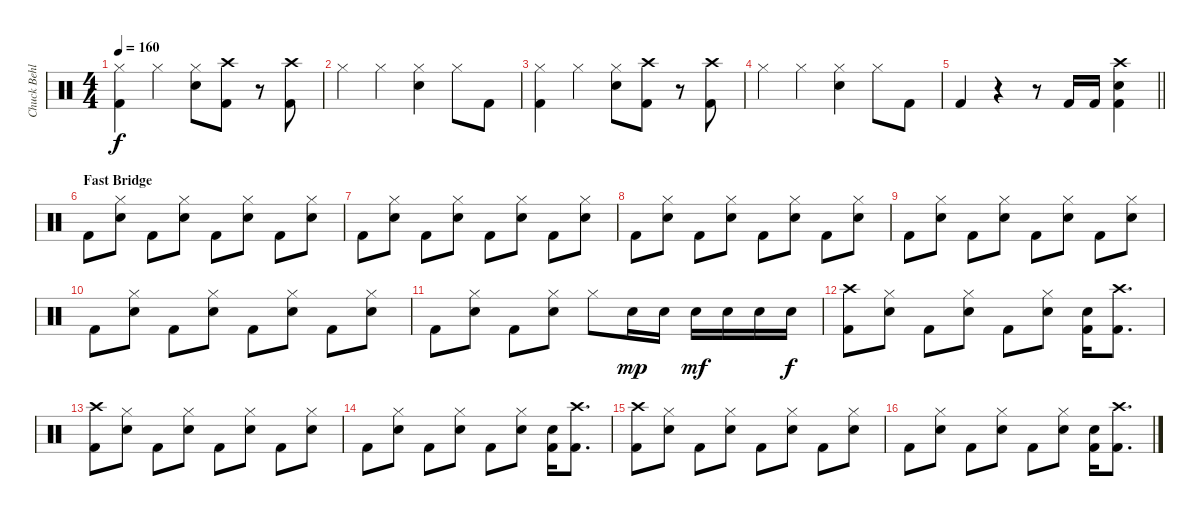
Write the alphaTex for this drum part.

\track ("Chuck Behler" "Chuck Behl") {instrument percussion}
\staff {score}
\articulation defaults
\ts (4 4)
\tempo 160
\clef neutral
\ks c
("Hi-Hat (closed)" "Kick (hit) 2").4{dy f} "Hi-Hat (closed)".4 ("Hi-Hat (closed)" "Snare (hit) 2").8 ("Crash high (hit)" "Kick (hit) 2").8 r.8 ("Crash high (hit)" "Kick (hit) 2").8 |
"Hi-Hat (closed)".4 "Hi-Hat (closed)".4 ("Hi-Hat (closed)" "Snare (hit) 2").4 "Hi-Hat (closed)".8 "Kick (hit) 2".8 |
("Hi-Hat (closed)" "Kick (hit) 2").4 "Hi-Hat (closed)".4 ("Hi-Hat (closed)" "Snare (hit) 2").8 ("Crash high (hit)" "Kick (hit) 2").8 r.8 ("Crash high (hit)" "Kick (hit) 2").8 |
"Hi-Hat (closed)".4 "Hi-Hat (closed)".4 ("Hi-Hat (closed)" "Snare (hit) 2").4 "Hi-Hat (closed)".8 "Kick (hit) 2".8 |
\barLineRight lightlight "Kick (hit) 2".4
r.4 r.8 "Kick (hit) 2".16 "Kick (hit) 2".16 ("Crash high (hit)" "Snare (hit) 2" "Kick (hit) 2").4 |
\section ("" "Fast Bridge")
"Kick (hit) 2".8 ("Hi-Hat (closed)" "Snare (hit) 2").8 "Kick (hit) 2".8 ("Hi-Hat (closed)" "Snare (hit) 2").8 "Kick (hit) 2".8 ("Hi-Hat (closed)" "Snare (hit) 2").8 "Kick (hit) 2".8 ("Hi-Hat (closed)" "Snare (hit) 2").8 |
"Kick (hit) 2".8 ("Hi-Hat (closed)" "Snare (hit) 2").8 "Kick (hit) 2".8 ("Hi-Hat (closed)" "Snare (hit) 2").8 "Kick (hit) 2".8 ("Hi-Hat (closed)" "Snare (hit) 2").8 "Kick (hit) 2".8 ("Hi-Hat (closed)" "Snare (hit) 2").8 |
"Kick (hit) 2".8 ("Hi-Hat (closed)" "Snare (hit) 2").8 "Kick (hit) 2".8 ("Hi-Hat (closed)" "Snare (hit) 2").8 "Kick (hit) 2".8 ("Hi-Hat (closed)" "Snare (hit) 2").8 "Kick (hit) 2".8 ("Hi-Hat (closed)" "Snare (hit) 2").8 |
"Kick (hit) 2".8 ("Hi-Hat (closed)" "Snare (hit) 2").8 "Kick (hit) 2".8 ("Hi-Hat (closed)" "Snare (hit) 2").8 "Kick (hit) 2".8 ("Hi-Hat (closed)" "Snare (hit) 2").8 "Kick (hit) 2".8 ("Hi-Hat (closed)" "Snare (hit) 2").8 |
"Kick (hit) 2".8 ("Hi-Hat (closed)" "Snare (hit) 2").8 "Kick (hit) 2".8 ("Hi-Hat (closed)" "Snare (hit) 2").8 "Kick (hit) 2".8 ("Hi-Hat (closed)" "Snare (hit) 2").8 "Kick (hit) 2".8 ("Hi-Hat (closed)" "Snare (hit) 2").8 |
"Kick (hit) 2".8 ("Hi-Hat (closed)" "Snare (hit) 2").8 "Kick (hit) 2".8 ("Hi-Hat (closed)" "Snare (hit) 2").8 "Hi-Hat (closed)".8 "Snare (hit) 2".16{dy mp} "Snare (hit) 2".16 "Snare (hit) 2".16{dy mf} "Snare (hit) 2".16 "Snare (hit) 2".16 "Snare (hit) 2".16{dy f} |
("Crash high (hit)" "Kick (hit) 2").8 ("Hi-Hat (closed)" "Snare (hit) 2").8 "Kick (hit) 2".8 ("Hi-Hat (closed)" "Snare (hit) 2").8 "Kick (hit) 2".8 ("Hi-Hat (closed)" "Snare (hit) 2").8 ("Snare (hit) 2" "Kick (hit) 2").16 ("Crash high (hit)" "Kick (hit) 2").8{d} |
("Crash high (hit)" "Kick (hit) 2").8 ("Hi-Hat (closed)" "Snare (hit) 2").8 "Kick (hit) 2".8 ("Hi-Hat (closed)" "Snare (hit) 2").8 "Kick (hit) 2".8 ("Hi-Hat (closed)" "Snare (hit) 2").8 "Kick (hit) 2".8 ("Hi-Hat (closed)" "Snare (hit) 2").8 |
"Kick (hit) 2".8 ("Hi-Hat (closed)" "Snare (hit) 2").8 "Kick (hit) 2".8 ("Hi-Hat (closed)" "Snare (hit) 2").8 "Kick (hit) 2".8 ("Hi-Hat (closed)" "Snare (hit) 2").8 ("Snare (hit) 2" "Kick (hit) 2").16 ("Crash high (hit)" "Kick (hit) 2").8{d} |
("Crash high (hit)" "Kick (hit) 2").8 ("Hi-Hat (closed)" "Snare (hit) 2").8 "Kick (hit) 2".8 ("Hi-Hat (closed)" "Snare (hit) 2").8 "Kick (hit) 2".8 ("Hi-Hat (closed)" "Snare (hit) 2").8 "Kick (hit) 2".8 ("Hi-Hat (closed)" "Snare (hit) 2").8 |
"Kick (hit) 2".8 ("Hi-Hat (closed)" "Snare (hit) 2").8 "Kick (hit) 2".8 ("Hi-Hat (closed)" "Snare (hit) 2").8 "Kick (hit) 2".8 ("Hi-Hat (closed)" "Snare (hit) 2").8 ("Snare (hit) 2" "Kick (hit) 2").16 ("Crash high (hit)" "Kick (hit) 2").8{d}
